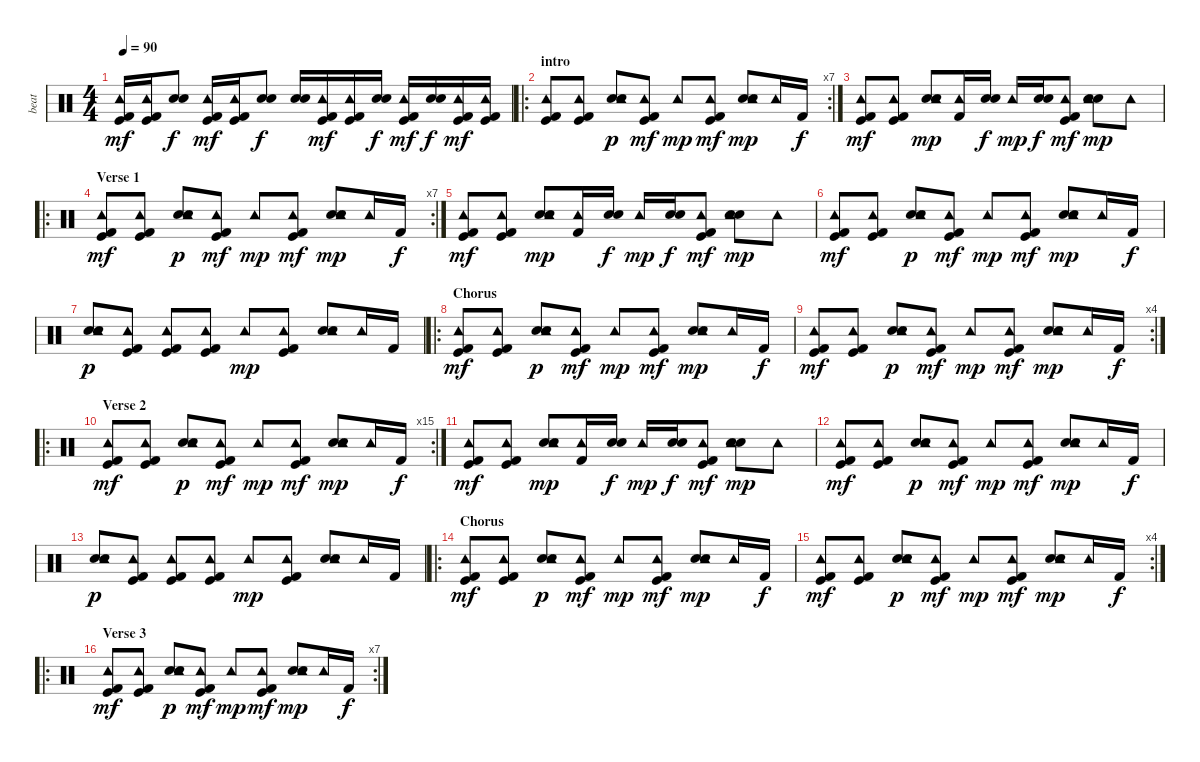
\track ("beat" "beat") {instrument percussion}
\staff {score}
\articulation defaults
\ts (4 4)
\tempo 90
\clef neutral
\ks c
("Kick (hit)" "Kick (hit) 2" "Tambourine (hit)").16{dy mf} ("Kick (hit)" "Kick (hit) 2" "Tambourine (hit)").16 ("Snare (hit) 2" "Electric Snare (hit)").8{dy f} ("Kick (hit)" "Kick (hit) 2" "Tambourine (hit)").16{dy mf} ("Kick (hit)" "Kick (hit) 2" "Tambourine (hit)").16 ("Snare (hit) 2" "Electric Snare (hit)").8{dy f} ("Snare (hit) 2" "Electric Snare (hit)").16 ("Kick (hit)" "Kick (hit) 2" "Tambourine (hit)").16{dy mf} ("Kick (hit)" "Kick (hit) 2" "Tambourine (hit)").16 ("Snare (hit) 2" "Electric Snare (hit)").16{dy f} ("Kick (hit)" "Kick (hit) 2" "Tambourine (hit)").16{dy mf} ("Snare (hit) 2" "Electric Snare (hit)").16{dy f} ("Kick (hit)" "Kick (hit) 2" "Tambourine (hit)").16{dy mf} ("Kick (hit)" "Kick (hit) 2" "Tambourine (hit)").16 |
\ro
\rc 7
\section ("" "intro")
("Kick (hit)" "Kick (hit) 2" "Tambourine (hit)").8 ("Kick (hit)" "Kick (hit) 2" "Tambourine (hit)").8 ("Snare (hit) 2" "Electric Snare (hit)" "Tambourine (hit)").8{dy p} ("Kick (hit)" "Kick (hit) 2" "Tambourine (hit)").8{dy mf} "Tambourine (hit)".8{dy mp} ("Kick (hit)" "Kick (hit) 2" "Tambourine (hit)").8{dy mf} ("Snare (hit) 2" "Electric Snare (hit)" "Tambourine (hit)").8{dy mp} "Tambourine (hit)".16 "Kick (hit) 2".16{dy f} |
("Kick (hit)" "Kick (hit) 2" "Tambourine (hit)").8{dy mf} ("Kick (hit)" "Kick (hit) 2" "Tambourine (hit)").8 ("Snare (hit) 2" "Electric Snare (hit)" "Tambourine (hit)").8{dy mp} ("Kick (hit) 2" "Tambourine (hit)").16 ("Snare (hit) 2" "Electric Snare (hit)").16{dy f} "Tambourine (hit)".16{dy mp} ("Snare (hit) 2" "Electric Snare (hit)").16{dy f} ("Kick (hit)" "Kick (hit) 2" "Tambourine (hit)").8{dy mf} ("Snare (hit) 2" "Electric Snare (hit)" "Tambourine (hit)").8{dy mp} "Tambourine (hit)".8 |
\ro
\rc 7
\section ("" "Verse 1")
("Kick (hit)" "Kick (hit) 2" "Tambourine (hit)").8{dy mf} ("Kick (hit)" "Kick (hit) 2" "Tambourine (hit)").8 ("Snare (hit) 2" "Electric Snare (hit)" "Tambourine (hit)").8{dy p} ("Kick (hit)" "Kick (hit) 2" "Tambourine (hit)").8{dy mf} "Tambourine (hit)".8{dy mp} ("Kick (hit)" "Kick (hit) 2" "Tambourine (hit)").8{dy mf} ("Snare (hit) 2" "Electric Snare (hit)" "Tambourine (hit)").8{dy mp} "Tambourine (hit)".16 "Kick (hit) 2".16{dy f} |
("Kick (hit)" "Kick (hit) 2" "Tambourine (hit)").8{dy mf} ("Kick (hit)" "Kick (hit) 2" "Tambourine (hit)").8 ("Snare (hit) 2" "Electric Snare (hit)" "Tambourine (hit)").8{dy mp} ("Kick (hit) 2" "Tambourine (hit)").16 ("Snare (hit) 2" "Electric Snare (hit)").16{dy f} "Tambourine (hit)".16{dy mp} ("Snare (hit) 2" "Electric Snare (hit)").16{dy f} ("Kick (hit)" "Kick (hit) 2" "Tambourine (hit)").8{dy mf} ("Snare (hit) 2" "Electric Snare (hit)" "Tambourine (hit)").8{dy mp} "Tambourine (hit)".8 |
("Kick (hit)" "Kick (hit) 2" "Tambourine (hit)").8{dy mf} ("Kick (hit)" "Kick (hit) 2" "Tambourine (hit)").8 ("Snare (hit) 2" "Electric Snare (hit)" "Tambourine (hit)").8{dy p} ("Kick (hit)" "Kick (hit) 2" "Tambourine (hit)").8{dy mf} "Tambourine (hit)".8{dy mp} ("Kick (hit)" "Kick (hit) 2" "Tambourine (hit)").8{dy mf} ("Snare (hit) 2" "Electric Snare (hit)" "Tambourine (hit)").8{dy mp} "Tambourine (hit)".16 "Kick (hit) 2".16{dy f} |
("Snare (hit) 2" "Electric Snare (hit)" "Tambourine (hit)").8{dy p} ("Kick (hit)" "Kick (hit) 2" "Tambourine (hit)").8 ("Kick (hit)" "Kick (hit) 2" "Tambourine (hit)").8 ("Kick (hit)" "Kick (hit) 2" "Tambourine (hit)").8 "Tambourine (hit)".8{dy mp} ("Kick (hit)" "Kick (hit) 2" "Tambourine (hit)").8 ("Snare (hit) 2" "Electric Snare (hit)" "Tambourine (hit)").8 "Tambourine (hit)".16 "Kick (hit) 2".16 |
\ro
\section ("" "Chorus")
("Kick (hit)" "Kick (hit) 2" "Tambourine (hit)").8{dy mf} ("Kick (hit)" "Kick (hit) 2" "Tambourine (hit)").8 ("Snare (hit) 2" "Electric Snare (hit)" "Tambourine (hit)").8{dy p} ("Kick (hit)" "Kick (hit) 2" "Tambourine (hit)").8{dy mf} "Tambourine (hit)".8{dy mp} ("Kick (hit)" "Kick (hit) 2" "Tambourine (hit)").8{dy mf} ("Snare (hit) 2" "Electric Snare (hit)" "Tambourine (hit)").8{dy mp} "Tambourine (hit)".16 "Kick (hit) 2".16{dy f} |
\rc 4
("Kick (hit)" "Kick (hit) 2" "Tambourine (hit)").8{dy mf} ("Kick (hit)" "Kick (hit) 2" "Tambourine (hit)").8 ("Snare (hit) 2" "Electric Snare (hit)" "Tambourine (hit)").8{dy p} ("Kick (hit)" "Kick (hit) 2" "Tambourine (hit)").8{dy mf} "Tambourine (hit)".8{dy mp} ("Kick (hit)" "Kick (hit) 2" "Tambourine (hit)").8{dy mf} ("Snare (hit) 2" "Electric Snare (hit)" "Tambourine (hit)").8{dy mp} "Tambourine (hit)".16 "Kick (hit) 2".16{dy f} |
\ro
\rc 15
\section ("" "Verse 2")
("Kick (hit)" "Kick (hit) 2" "Tambourine (hit)").8{dy mf} ("Kick (hit)" "Kick (hit) 2" "Tambourine (hit)").8 ("Snare (hit) 2" "Electric Snare (hit)" "Tambourine (hit)").8{dy p} ("Kick (hit)" "Kick (hit) 2" "Tambourine (hit)").8{dy mf} "Tambourine (hit)".8{dy mp} ("Kick (hit)" "Kick (hit) 2" "Tambourine (hit)").8{dy mf} ("Snare (hit) 2" "Electric Snare (hit)" "Tambourine (hit)").8{dy mp} "Tambourine (hit)".16 "Kick (hit) 2".16{dy f} |
("Kick (hit)" "Kick (hit) 2" "Tambourine (hit)").8{dy mf} ("Kick (hit)" "Kick (hit) 2" "Tambourine (hit)").8 ("Snare (hit) 2" "Electric Snare (hit)" "Tambourine (hit)").8{dy mp} ("Kick (hit) 2" "Tambourine (hit)").16 ("Snare (hit) 2" "Electric Snare (hit)").16{dy f} "Tambourine (hit)".16{dy mp} ("Snare (hit) 2" "Electric Snare (hit)").16{dy f} ("Kick (hit)" "Kick (hit) 2" "Tambourine (hit)").8{dy mf} ("Snare (hit) 2" "Electric Snare (hit)" "Tambourine (hit)").8{dy mp} "Tambourine (hit)".8 |
("Kick (hit)" "Kick (hit) 2" "Tambourine (hit)").8{dy mf} ("Kick (hit)" "Kick (hit) 2" "Tambourine (hit)").8 ("Snare (hit) 2" "Electric Snare (hit)" "Tambourine (hit)").8{dy p} ("Kick (hit)" "Kick (hit) 2" "Tambourine (hit)").8{dy mf} "Tambourine (hit)".8{dy mp} ("Kick (hit)" "Kick (hit) 2" "Tambourine (hit)").8{dy mf} ("Snare (hit) 2" "Electric Snare (hit)" "Tambourine (hit)").8{dy mp} "Tambourine (hit)".16 "Kick (hit) 2".16{dy f} |
("Snare (hit) 2" "Electric Snare (hit)" "Tambourine (hit)").8{dy p} ("Kick (hit)" "Kick (hit) 2" "Tambourine (hit)").8 ("Kick (hit)" "Kick (hit) 2" "Tambourine (hit)").8 ("Kick (hit)" "Kick (hit) 2" "Tambourine (hit)").8 "Tambourine (hit)".8{dy mp} ("Kick (hit)" "Kick (hit) 2" "Tambourine (hit)").8 ("Snare (hit) 2" "Electric Snare (hit)" "Tambourine (hit)").8 "Tambourine (hit)".16 "Kick (hit) 2".16 |
\ro
\section ("" "Chorus")
("Kick (hit)" "Kick (hit) 2" "Tambourine (hit)").8{dy mf} ("Kick (hit)" "Kick (hit) 2" "Tambourine (hit)").8 ("Snare (hit) 2" "Electric Snare (hit)" "Tambourine (hit)").8{dy p} ("Kick (hit)" "Kick (hit) 2" "Tambourine (hit)").8{dy mf} "Tambourine (hit)".8{dy mp} ("Kick (hit)" "Kick (hit) 2" "Tambourine (hit)").8{dy mf} ("Snare (hit) 2" "Electric Snare (hit)" "Tambourine (hit)").8{dy mp} "Tambourine (hit)".16 "Kick (hit) 2".16{dy f} |
\rc 4
("Kick (hit)" "Kick (hit) 2" "Tambourine (hit)").8{dy mf} ("Kick (hit)" "Kick (hit) 2" "Tambourine (hit)").8 ("Snare (hit) 2" "Electric Snare (hit)" "Tambourine (hit)").8{dy p} ("Kick (hit)" "Kick (hit) 2" "Tambourine (hit)").8{dy mf} "Tambourine (hit)".8{dy mp} ("Kick (hit)" "Kick (hit) 2" "Tambourine (hit)").8{dy mf} ("Snare (hit) 2" "Electric Snare (hit)" "Tambourine (hit)").8{dy mp} "Tambourine (hit)".16 "Kick (hit) 2".16{dy f} |
\ro
\rc 7
\section ("" "Verse 3")
("Kick (hit)" "Kick (hit) 2" "Tambourine (hit)").8{dy mf} ("Kick (hit)" "Kick (hit) 2" "Tambourine (hit)").8 ("Snare (hit) 2" "Electric Snare (hit)" "Tambourine (hit)").8{dy p} ("Kick (hit)" "Kick (hit) 2" "Tambourine (hit)").8{dy mf} "Tambourine (hit)".8{dy mp} ("Kick (hit)" "Kick (hit) 2" "Tambourine (hit)").8{dy mf} ("Snare (hit) 2" "Electric Snare (hit)" "Tambourine (hit)").8{dy mp} "Tambourine (hit)".16 "Kick (hit) 2".16{dy f}
